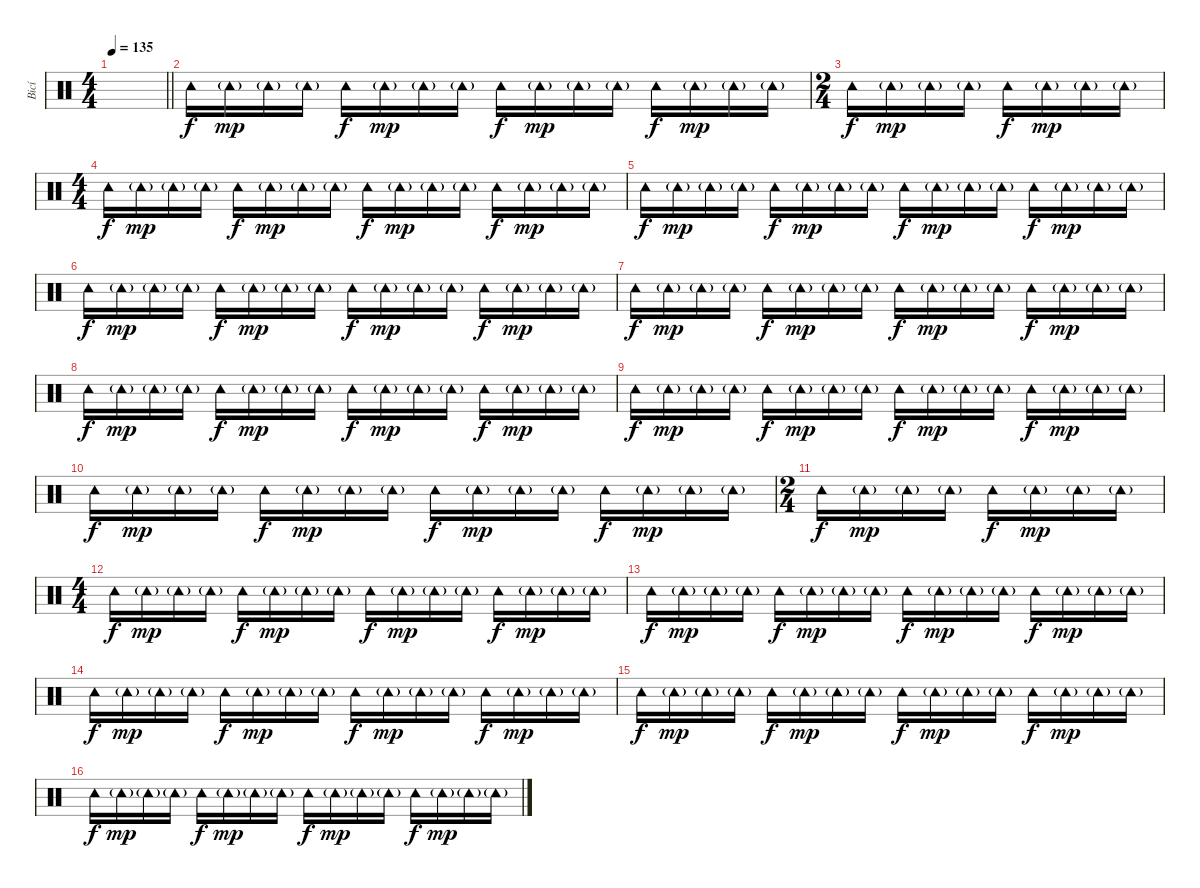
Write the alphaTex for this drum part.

\track ("Bicí" "Bicí") {instrument percussion}
\staff {score}
\articulation defaults
\ts (4 4)
\tempo 135
\clef neutral
\barLineRight lightlight
\ks c
|
\section ("" "")
"Tambourine (hit)".16 "Tambourine (hit)"{g}.16{dy mp} "Tambourine (hit)"{g}.16 "Tambourine (hit)"{g}.16 "Tambourine (hit)".16{dy f} "Tambourine (hit)"{g}.16{dy mp} "Tambourine (hit)"{g}.16 "Tambourine (hit)"{g}.16 "Tambourine (hit)".16{dy f} "Tambourine (hit)"{g}.16{dy mp} "Tambourine (hit)"{g}.16 "Tambourine (hit)"{g}.16 "Tambourine (hit)".16{dy f} "Tambourine (hit)"{g}.16{dy mp} "Tambourine (hit)"{g}.16 "Tambourine (hit)"{g}.16 |
\ts (2 4)
"Tambourine (hit)".16{dy f} "Tambourine (hit)"{g}.16{dy mp} "Tambourine (hit)"{g}.16 "Tambourine (hit)"{g}.16 "Tambourine (hit)".16{dy f} "Tambourine (hit)"{g}.16{dy mp} "Tambourine (hit)"{g}.16 "Tambourine (hit)"{g}.16 |
\ts (4 4)
"Tambourine (hit)".16{dy f} "Tambourine (hit)"{g}.16{dy mp} "Tambourine (hit)"{g}.16 "Tambourine (hit)"{g}.16 "Tambourine (hit)".16{dy f} "Tambourine (hit)"{g}.16{dy mp} "Tambourine (hit)"{g}.16 "Tambourine (hit)"{g}.16 "Tambourine (hit)".16{dy f} "Tambourine (hit)"{g}.16{dy mp} "Tambourine (hit)"{g}.16 "Tambourine (hit)"{g}.16 "Tambourine (hit)".16{dy f} "Tambourine (hit)"{g}.16{dy mp} "Tambourine (hit)"{g}.16 "Tambourine (hit)"{g}.16 |
"Tambourine (hit)".16{dy f} "Tambourine (hit)"{g}.16{dy mp} "Tambourine (hit)"{g}.16 "Tambourine (hit)"{g}.16 "Tambourine (hit)".16{dy f} "Tambourine (hit)"{g}.16{dy mp} "Tambourine (hit)"{g}.16 "Tambourine (hit)"{g}.16 "Tambourine (hit)".16{dy f} "Tambourine (hit)"{g}.16{dy mp} "Tambourine (hit)"{g}.16 "Tambourine (hit)"{g}.16 "Tambourine (hit)".16{dy f} "Tambourine (hit)"{g}.16{dy mp} "Tambourine (hit)"{g}.16 "Tambourine (hit)"{g}.16 |
"Tambourine (hit)".16{dy f} "Tambourine (hit)"{g}.16{dy mp} "Tambourine (hit)"{g}.16 "Tambourine (hit)"{g}.16 "Tambourine (hit)".16{dy f} "Tambourine (hit)"{g}.16{dy mp} "Tambourine (hit)"{g}.16 "Tambourine (hit)"{g}.16 "Tambourine (hit)".16{dy f} "Tambourine (hit)"{g}.16{dy mp} "Tambourine (hit)"{g}.16 "Tambourine (hit)"{g}.16 "Tambourine (hit)".16{dy f} "Tambourine (hit)"{g}.16{dy mp} "Tambourine (hit)"{g}.16 "Tambourine (hit)"{g}.16 |
"Tambourine (hit)".16{dy f} "Tambourine (hit)"{g}.16{dy mp} "Tambourine (hit)"{g}.16 "Tambourine (hit)"{g}.16 "Tambourine (hit)".16{dy f} "Tambourine (hit)"{g}.16{dy mp} "Tambourine (hit)"{g}.16 "Tambourine (hit)"{g}.16 "Tambourine (hit)".16{dy f} "Tambourine (hit)"{g}.16{dy mp} "Tambourine (hit)"{g}.16 "Tambourine (hit)"{g}.16 "Tambourine (hit)".16{dy f} "Tambourine (hit)"{g}.16{dy mp} "Tambourine (hit)"{g}.16 "Tambourine (hit)"{g}.16 |
"Tambourine (hit)".16{dy f} "Tambourine (hit)"{g}.16{dy mp} "Tambourine (hit)"{g}.16 "Tambourine (hit)"{g}.16 "Tambourine (hit)".16{dy f} "Tambourine (hit)"{g}.16{dy mp} "Tambourine (hit)"{g}.16 "Tambourine (hit)"{g}.16 "Tambourine (hit)".16{dy f} "Tambourine (hit)"{g}.16{dy mp} "Tambourine (hit)"{g}.16 "Tambourine (hit)"{g}.16 "Tambourine (hit)".16{dy f} "Tambourine (hit)"{g}.16{dy mp} "Tambourine (hit)"{g}.16 "Tambourine (hit)"{g}.16 |
"Tambourine (hit)".16{dy f} "Tambourine (hit)"{g}.16{dy mp} "Tambourine (hit)"{g}.16 "Tambourine (hit)"{g}.16 "Tambourine (hit)".16{dy f} "Tambourine (hit)"{g}.16{dy mp} "Tambourine (hit)"{g}.16 "Tambourine (hit)"{g}.16 "Tambourine (hit)".16{dy f} "Tambourine (hit)"{g}.16{dy mp} "Tambourine (hit)"{g}.16 "Tambourine (hit)"{g}.16 "Tambourine (hit)".16{dy f} "Tambourine (hit)"{g}.16{dy mp} "Tambourine (hit)"{g}.16 "Tambourine (hit)"{g}.16 |
"Tambourine (hit)".16{dy f} "Tambourine (hit)"{g}.16{dy mp} "Tambourine (hit)"{g}.16 "Tambourine (hit)"{g}.16 "Tambourine (hit)".16{dy f} "Tambourine (hit)"{g}.16{dy mp} "Tambourine (hit)"{g}.16 "Tambourine (hit)"{g}.16 "Tambourine (hit)".16{dy f} "Tambourine (hit)"{g}.16{dy mp} "Tambourine (hit)"{g}.16 "Tambourine (hit)"{g}.16 "Tambourine (hit)".16{dy f} "Tambourine (hit)"{g}.16{dy mp} "Tambourine (hit)"{g}.16 "Tambourine (hit)"{g}.16 |
\ts (2 4)
"Tambourine (hit)".16{dy f} "Tambourine (hit)"{g}.16{dy mp} "Tambourine (hit)"{g}.16 "Tambourine (hit)"{g}.16 "Tambourine (hit)".16{dy f} "Tambourine (hit)"{g}.16{dy mp} "Tambourine (hit)"{g}.16 "Tambourine (hit)"{g}.16 |
\ts (4 4)
"Tambourine (hit)".16{dy f} "Tambourine (hit)"{g}.16{dy mp} "Tambourine (hit)"{g}.16 "Tambourine (hit)"{g}.16 "Tambourine (hit)".16{dy f} "Tambourine (hit)"{g}.16{dy mp} "Tambourine (hit)"{g}.16 "Tambourine (hit)"{g}.16 "Tambourine (hit)".16{dy f} "Tambourine (hit)"{g}.16{dy mp} "Tambourine (hit)"{g}.16 "Tambourine (hit)"{g}.16 "Tambourine (hit)".16{dy f} "Tambourine (hit)"{g}.16{dy mp} "Tambourine (hit)"{g}.16 "Tambourine (hit)"{g}.16 |
"Tambourine (hit)".16{dy f} "Tambourine (hit)"{g}.16{dy mp} "Tambourine (hit)"{g}.16 "Tambourine (hit)"{g}.16 "Tambourine (hit)".16{dy f} "Tambourine (hit)"{g}.16{dy mp} "Tambourine (hit)"{g}.16 "Tambourine (hit)"{g}.16 "Tambourine (hit)".16{dy f} "Tambourine (hit)"{g}.16{dy mp} "Tambourine (hit)"{g}.16 "Tambourine (hit)"{g}.16 "Tambourine (hit)".16{dy f} "Tambourine (hit)"{g}.16{dy mp} "Tambourine (hit)"{g}.16 "Tambourine (hit)"{g}.16 |
"Tambourine (hit)".16{dy f} "Tambourine (hit)"{g}.16{dy mp} "Tambourine (hit)"{g}.16 "Tambourine (hit)"{g}.16 "Tambourine (hit)".16{dy f} "Tambourine (hit)"{g}.16{dy mp} "Tambourine (hit)"{g}.16 "Tambourine (hit)"{g}.16 "Tambourine (hit)".16{dy f} "Tambourine (hit)"{g}.16{dy mp} "Tambourine (hit)"{g}.16 "Tambourine (hit)"{g}.16 "Tambourine (hit)".16{dy f} "Tambourine (hit)"{g}.16{dy mp} "Tambourine (hit)"{g}.16 "Tambourine (hit)"{g}.16 |
"Tambourine (hit)".16{dy f} "Tambourine (hit)"{g}.16{dy mp} "Tambourine (hit)"{g}.16 "Tambourine (hit)"{g}.16 "Tambourine (hit)".16{dy f} "Tambourine (hit)"{g}.16{dy mp} "Tambourine (hit)"{g}.16 "Tambourine (hit)"{g}.16 "Tambourine (hit)".16{dy f} "Tambourine (hit)"{g}.16{dy mp} "Tambourine (hit)"{g}.16 "Tambourine (hit)"{g}.16 "Tambourine (hit)".16{dy f} "Tambourine (hit)"{g}.16{dy mp} "Tambourine (hit)"{g}.16 "Tambourine (hit)"{g}.16 |
"Tambourine (hit)".16{dy f} "Tambourine (hit)"{g}.16{dy mp} "Tambourine (hit)"{g}.16 "Tambourine (hit)"{g}.16 "Tambourine (hit)".16{dy f} "Tambourine (hit)"{g}.16{dy mp} "Tambourine (hit)"{g}.16 "Tambourine (hit)"{g}.16 "Tambourine (hit)".16{dy f} "Tambourine (hit)"{g}.16{dy mp} "Tambourine (hit)"{g}.16 "Tambourine (hit)"{g}.16 "Tambourine (hit)".16{dy f} "Tambourine (hit)"{g}.16{dy mp} "Tambourine (hit)"{g}.16 "Tambourine (hit)"{g}.16
